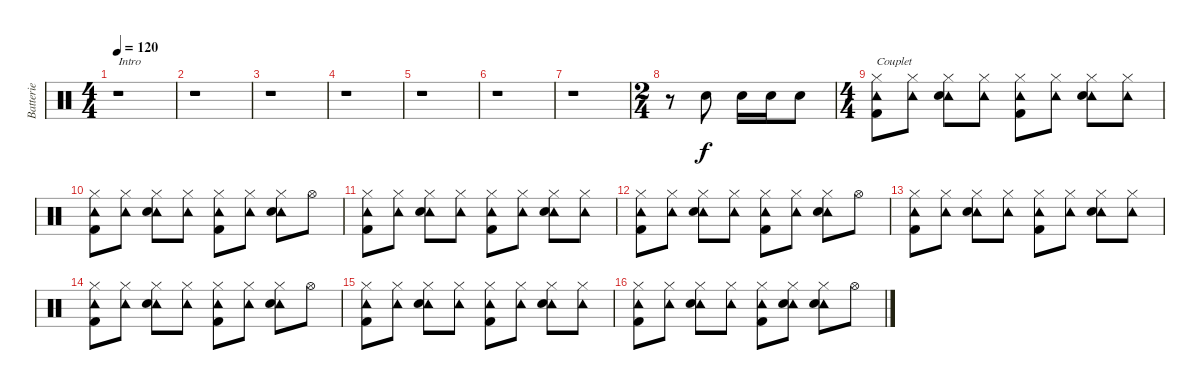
\track ("Batterie" "Batterie") {instrument percussion}
\staff {score}
\articulation defaults
\ts (4 4)
\tempo 120
\clef neutral
\ks c
r.1{txt "Intro" dy f} |
r.1 |
r.1 |
r.1 |
r.1 |
r.1 |
r.1 |
\ts (2 4)
r.8 "Electric Snare (hit)".8 "Electric Snare (hit)".16 "Electric Snare (hit)".16 "Electric Snare (hit)".8 |
\ts (4 4)
("Tambourine (hit)" "Hi-Hat (closed)" "Kick (hit) 2").8{txt "Couplet"} ("Tambourine (hit)" "Hi-Hat (closed)").8 ("Tambourine (hit)" "Hi-Hat (closed)" "Electric Snare (hit)").8 ("Tambourine (hit)" "Hi-Hat (closed)").8 ("Tambourine (hit)" "Hi-Hat (closed)" "Kick (hit) 2").8 ("Tambourine (hit)" "Hi-Hat (closed)").8 ("Tambourine (hit)" "Hi-Hat (closed)" "Electric Snare (hit)").8 ("Tambourine (hit)" "Hi-Hat (closed)").8 |
("Tambourine (hit)" "Hi-Hat (closed)" "Kick (hit) 2").8 ("Tambourine (hit)" "Hi-Hat (closed)").8 ("Tambourine (hit)" "Hi-Hat (closed)" "Electric Snare (hit)").8 ("Tambourine (hit)" "Hi-Hat (closed)").8 ("Tambourine (hit)" "Hi-Hat (closed)" "Kick (hit) 2").8 ("Tambourine (hit)" "Hi-Hat (closed)").8 ("Tambourine (hit)" "Hi-Hat (closed)" "Electric Snare (hit)").8 "Hi-Hat (open)".8 |
("Tambourine (hit)" "Hi-Hat (closed)" "Kick (hit) 2").8 ("Tambourine (hit)" "Hi-Hat (closed)").8 ("Tambourine (hit)" "Hi-Hat (closed)" "Electric Snare (hit)").8 ("Tambourine (hit)" "Hi-Hat (closed)").8 ("Tambourine (hit)" "Hi-Hat (closed)" "Kick (hit) 2").8 ("Tambourine (hit)" "Hi-Hat (closed)").8 ("Tambourine (hit)" "Hi-Hat (closed)" "Electric Snare (hit)").8 ("Tambourine (hit)" "Hi-Hat (closed)").8 |
("Tambourine (hit)" "Hi-Hat (closed)" "Kick (hit) 2").8 ("Tambourine (hit)" "Hi-Hat (closed)").8 ("Tambourine (hit)" "Hi-Hat (closed)" "Electric Snare (hit)").8 ("Tambourine (hit)" "Hi-Hat (closed)").8 ("Tambourine (hit)" "Hi-Hat (closed)" "Kick (hit) 2").8 ("Tambourine (hit)" "Hi-Hat (closed)").8 ("Tambourine (hit)" "Hi-Hat (closed)" "Electric Snare (hit)").8 "Hi-Hat (open)".8 |
("Tambourine (hit)" "Hi-Hat (closed)" "Kick (hit) 2").8 ("Tambourine (hit)" "Hi-Hat (closed)").8 ("Tambourine (hit)" "Hi-Hat (closed)" "Electric Snare (hit)").8 ("Tambourine (hit)" "Hi-Hat (closed)").8 ("Tambourine (hit)" "Hi-Hat (closed)" "Kick (hit) 2").8 ("Tambourine (hit)" "Hi-Hat (closed)").8 ("Tambourine (hit)" "Hi-Hat (closed)" "Electric Snare (hit)").8 ("Tambourine (hit)" "Hi-Hat (closed)").8 |
("Tambourine (hit)" "Hi-Hat (closed)" "Kick (hit) 2").8 ("Tambourine (hit)" "Hi-Hat (closed)").8 ("Tambourine (hit)" "Hi-Hat (closed)" "Electric Snare (hit)").8 ("Tambourine (hit)" "Hi-Hat (closed)").8 ("Tambourine (hit)" "Hi-Hat (closed)" "Kick (hit) 2").8 ("Tambourine (hit)" "Hi-Hat (closed)").8 ("Tambourine (hit)" "Hi-Hat (closed)" "Electric Snare (hit)").8 "Hi-Hat (open)".8 |
("Tambourine (hit)" "Hi-Hat (closed)" "Kick (hit) 2").8 ("Tambourine (hit)" "Hi-Hat (closed)").8 ("Tambourine (hit)" "Hi-Hat (closed)" "Electric Snare (hit)").8 ("Tambourine (hit)" "Hi-Hat (closed)").8 ("Tambourine (hit)" "Hi-Hat (closed)" "Kick (hit) 2").8 ("Tambourine (hit)" "Hi-Hat (closed)").8 ("Tambourine (hit)" "Hi-Hat (closed)" "Electric Snare (hit)").8 ("Tambourine (hit)" "Hi-Hat (closed)").8 |
("Tambourine (hit)" "Hi-Hat (closed)" "Kick (hit) 2").8 ("Tambourine (hit)" "Hi-Hat (closed)").8 ("Tambourine (hit)" "Hi-Hat (closed)" "Electric Snare (hit)").8 ("Tambourine (hit)" "Hi-Hat (closed)").8 ("Tambourine (hit)" "Hi-Hat (closed)" "Kick (hit) 2").8 ("Tambourine (hit)" "Hi-Hat (closed)" "Electric Snare (hit)").8 ("Tambourine (hit)" "Hi-Hat (closed)" "Electric Snare (hit)").8 "Hi-Hat (open)".8
